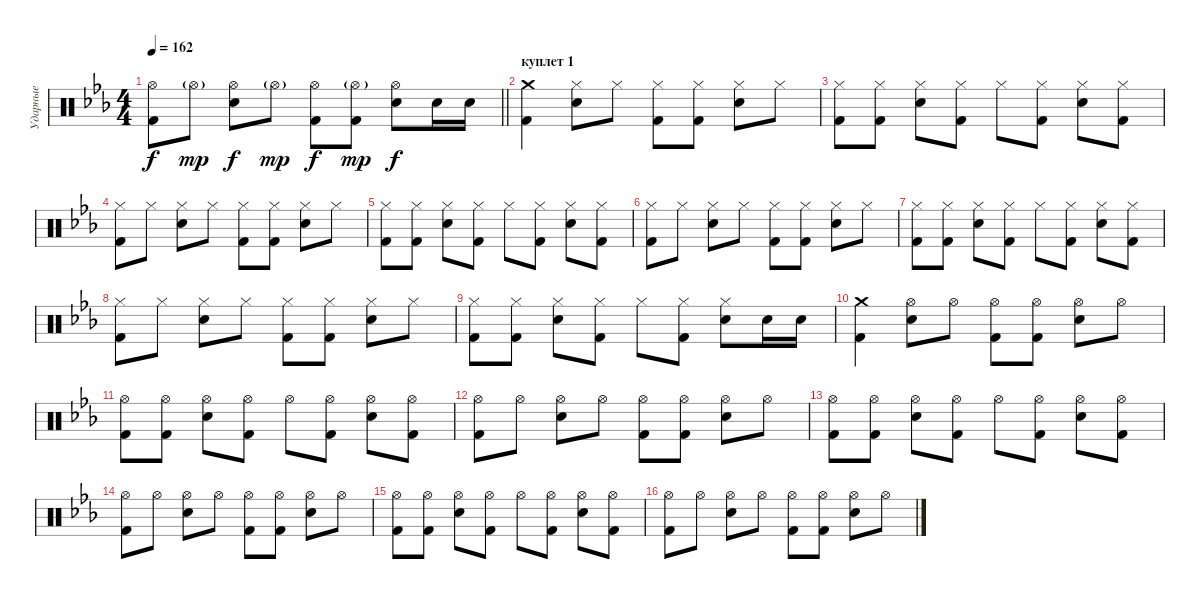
\track ("Ударные" "Ударные") {instrument percussion}
\staff {score}
\articulation defaults
\ts (4 4)
\tempo 162
\clef neutral
\barLineRight lightlight
\ks cminor
("Hi-Hat (open)" "Kick (hit) 2").8{dy f} "Hi-Hat (open)"{g}.8{dy mp} ("Hi-Hat (open)" "Snare (hit) 2").8{dy f} "Hi-Hat (open)"{g}.8{dy mp} ("Hi-Hat (open)" "Kick (hit) 2").8{dy f} ("Hi-Hat (open)"{g} "Kick (hit) 2").8{dy mp} ("Hi-Hat (open)" "Snare (hit) 2").8{dy f} "Snare (hit) 2".16 "Snare (hit) 2".16 |
\section ("" "куплет 1")
("Crash medium (hit)" "Kick (hit) 2").4 ("Hi-Hat (closed)" "Snare (hit) 2").8 "Hi-Hat (closed)".8 ("Hi-Hat (closed)" "Kick (hit) 2").8 ("Hi-Hat (closed)" "Kick (hit) 2").8 ("Hi-Hat (closed)" "Snare (hit) 2").8 "Hi-Hat (closed)".8 |
("Hi-Hat (closed)" "Kick (hit) 2").8 ("Hi-Hat (closed)" "Kick (hit) 2").8 ("Hi-Hat (closed)" "Snare (hit) 2").8 ("Hi-Hat (closed)" "Kick (hit) 2").8 "Hi-Hat (closed)".8 ("Hi-Hat (closed)" "Kick (hit) 2").8 ("Hi-Hat (closed)" "Snare (hit) 2").8 ("Hi-Hat (closed)" "Kick (hit) 2").8 |
("Hi-Hat (closed)" "Kick (hit) 2").8 "Hi-Hat (closed)".8 ("Hi-Hat (closed)" "Snare (hit) 2").8 "Hi-Hat (closed)".8 ("Hi-Hat (closed)" "Kick (hit) 2").8 ("Hi-Hat (closed)" "Kick (hit) 2").8 ("Hi-Hat (closed)" "Snare (hit) 2").8 "Hi-Hat (closed)".8 |
("Hi-Hat (closed)" "Kick (hit) 2").8 ("Hi-Hat (closed)" "Kick (hit) 2").8 ("Hi-Hat (closed)" "Snare (hit) 2").8 ("Hi-Hat (closed)" "Kick (hit) 2").8 "Hi-Hat (closed)".8 ("Hi-Hat (closed)" "Kick (hit) 2").8 ("Hi-Hat (closed)" "Snare (hit) 2").8 ("Hi-Hat (closed)" "Kick (hit) 2").8 |
("Hi-Hat (closed)" "Kick (hit) 2").8 "Hi-Hat (closed)".8 ("Hi-Hat (closed)" "Snare (hit) 2").8 "Hi-Hat (closed)".8 ("Hi-Hat (closed)" "Kick (hit) 2").8 ("Hi-Hat (closed)" "Kick (hit) 2").8 ("Hi-Hat (closed)" "Snare (hit) 2").8 "Hi-Hat (closed)".8 |
("Hi-Hat (closed)" "Kick (hit) 2").8 ("Hi-Hat (closed)" "Kick (hit) 2").8 ("Hi-Hat (closed)" "Snare (hit) 2").8 ("Hi-Hat (closed)" "Kick (hit) 2").8 "Hi-Hat (closed)".8 ("Hi-Hat (closed)" "Kick (hit) 2").8 ("Hi-Hat (closed)" "Snare (hit) 2").8 ("Hi-Hat (closed)" "Kick (hit) 2").8 |
("Hi-Hat (closed)" "Kick (hit) 2").8 "Hi-Hat (closed)".8 ("Hi-Hat (closed)" "Snare (hit) 2").8 "Hi-Hat (closed)".8 ("Hi-Hat (closed)" "Kick (hit) 2").8 ("Hi-Hat (closed)" "Kick (hit) 2").8 ("Hi-Hat (closed)" "Snare (hit) 2").8 "Hi-Hat (closed)".8 |
("Hi-Hat (closed)" "Kick (hit) 2").8 ("Hi-Hat (closed)" "Kick (hit) 2").8 ("Hi-Hat (closed)" "Snare (hit) 2").8 ("Hi-Hat (closed)" "Kick (hit) 2").8 "Hi-Hat (closed)".8 ("Hi-Hat (closed)" "Kick (hit) 2").8 ("Hi-Hat (closed)" "Snare (hit) 2").8 "Snare (hit) 2".16 "Snare (hit) 2".16 |
("Crash medium (hit)" "Kick (hit) 2").4 ("Hi-Hat (open)" "Snare (hit) 2").8 "Hi-Hat (open)".8 ("Hi-Hat (open)" "Kick (hit) 2").8 ("Hi-Hat (open)" "Kick (hit) 2").8 ("Hi-Hat (open)" "Snare (hit) 2").8 "Hi-Hat (open)".8 |
("Hi-Hat (open)" "Kick (hit) 2").8 ("Hi-Hat (open)" "Kick (hit) 2").8 ("Hi-Hat (open)" "Snare (hit) 2").8 ("Hi-Hat (open)" "Kick (hit) 2").8 "Hi-Hat (open)".8 ("Hi-Hat (open)" "Kick (hit) 2").8 ("Hi-Hat (open)" "Snare (hit) 2").8 ("Hi-Hat (open)" "Kick (hit) 2").8 |
("Hi-Hat (open)" "Kick (hit) 2").8 "Hi-Hat (open)".8 ("Hi-Hat (open)" "Snare (hit) 2").8 "Hi-Hat (open)".8 ("Hi-Hat (open)" "Kick (hit) 2").8 ("Hi-Hat (open)" "Kick (hit) 2").8 ("Hi-Hat (open)" "Snare (hit) 2").8 "Hi-Hat (open)".8 |
("Hi-Hat (open)" "Kick (hit) 2").8 ("Hi-Hat (open)" "Kick (hit) 2").8 ("Hi-Hat (open)" "Snare (hit) 2").8 ("Hi-Hat (open)" "Kick (hit) 2").8 "Hi-Hat (open)".8 ("Hi-Hat (open)" "Kick (hit) 2").8 ("Hi-Hat (open)" "Snare (hit) 2").8 ("Hi-Hat (open)" "Kick (hit) 2").8 |
("Hi-Hat (open)" "Kick (hit) 2").8 "Hi-Hat (open)".8 ("Hi-Hat (open)" "Snare (hit) 2").8 "Hi-Hat (open)".8 ("Hi-Hat (open)" "Kick (hit) 2").8 ("Hi-Hat (open)" "Kick (hit) 2").8 ("Hi-Hat (open)" "Snare (hit) 2").8 "Hi-Hat (open)".8 |
("Hi-Hat (open)" "Kick (hit) 2").8 ("Hi-Hat (open)" "Kick (hit) 2").8 ("Hi-Hat (open)" "Snare (hit) 2").8 ("Hi-Hat (open)" "Kick (hit) 2").8 "Hi-Hat (open)".8 ("Hi-Hat (open)" "Kick (hit) 2").8 ("Hi-Hat (open)" "Snare (hit) 2").8 ("Hi-Hat (open)" "Kick (hit) 2").8 |
("Hi-Hat (open)" "Kick (hit) 2").8 "Hi-Hat (open)".8 ("Hi-Hat (open)" "Snare (hit) 2").8 "Hi-Hat (open)".8 ("Hi-Hat (open)" "Kick (hit) 2").8 ("Hi-Hat (open)" "Kick (hit) 2").8 ("Hi-Hat (open)" "Snare (hit) 2").8 "Hi-Hat (open)".8
